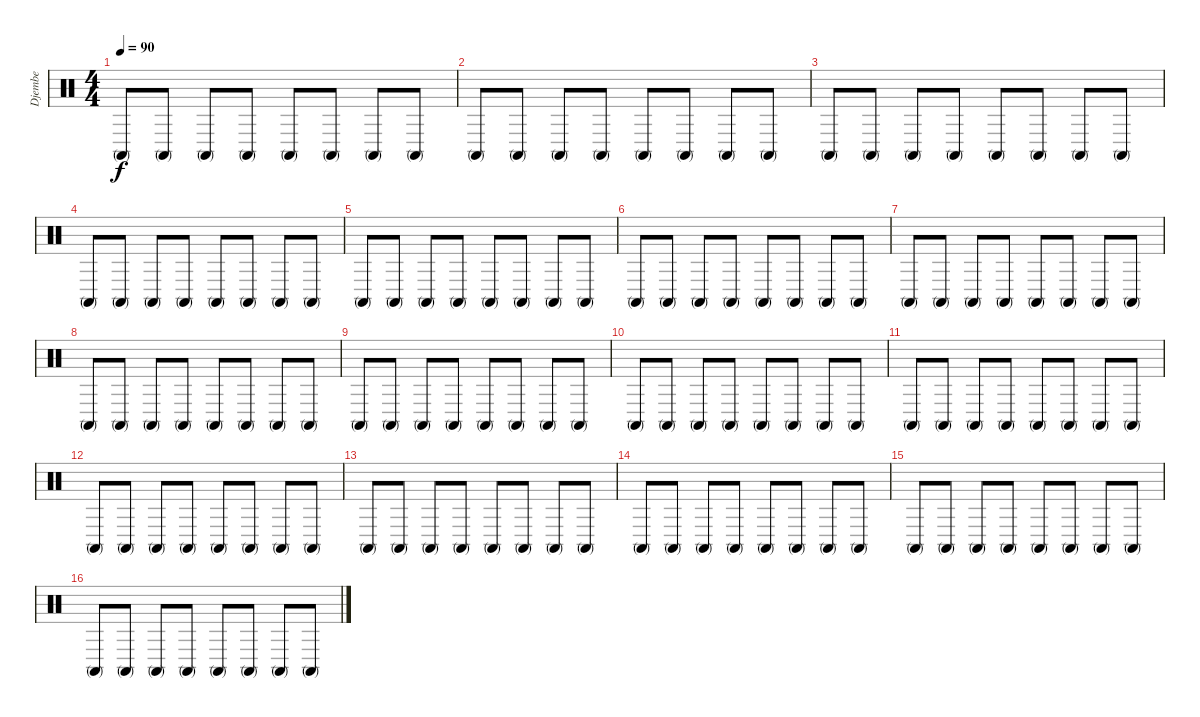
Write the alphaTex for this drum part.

\track ("Djembe" "Djembe") {instrument percussion}
\staff {score}
\articulation defaults
\ts (4 4)
\tempo 90
\clef neutral
\ks c "Conga high (mute)".8{dy f} "Conga high (mute)".8 "Conga high (mute)".8 "Conga high (mute)".8 "Conga high (mute)".8 "Conga high (mute)".8 "Conga high (mute)".8 "Conga high (mute)".8
|
"Conga high (mute)".8 "Conga high (mute)".8 "Conga high (mute)".8 "Conga high (mute)".8 "Conga high (mute)".8 "Conga high (mute)".8 "Conga high (mute)".8 "Conga high (mute)".8 |
"Conga high (mute)".8 "Conga high (mute)".8 "Conga high (mute)".8 "Conga high (mute)".8 "Conga high (mute)".8 "Conga high (mute)".8 "Conga high (mute)".8 "Conga high (mute)".8 |
"Conga high (mute)".8 "Conga high (mute)".8 "Conga high (mute)".8 "Conga high (mute)".8 "Conga high (mute)".8 "Conga high (mute)".8 "Conga high (mute)".8 "Conga high (mute)".8 |
"Conga high (mute)".8 "Conga high (mute)".8 "Conga high (mute)".8 "Conga high (mute)".8 "Conga high (mute)".8 "Conga high (mute)".8 "Conga high (mute)".8 "Conga high (mute)".8 |
"Conga high (mute)".8 "Conga high (mute)".8 "Conga high (mute)".8 "Conga high (mute)".8 "Conga high (mute)".8 "Conga high (mute)".8 "Conga high (mute)".8 "Conga high (mute)".8 |
"Conga high (mute)".8 "Conga high (mute)".8 "Conga high (mute)".8 "Conga high (mute)".8 "Conga high (mute)".8 "Conga high (mute)".8 "Conga high (mute)".8 "Conga high (mute)".8 |
"Conga high (mute)".8 "Conga high (mute)".8 "Conga high (mute)".8 "Conga high (mute)".8 "Conga high (mute)".8 "Conga high (mute)".8 "Conga high (mute)".8 "Conga high (mute)".8 |
"Conga high (mute)".8 "Conga high (mute)".8 "Conga high (mute)".8 "Conga high (mute)".8 "Conga high (mute)".8 "Conga high (mute)".8 "Conga high (mute)".8 "Conga high (mute)".8 |
"Conga high (mute)".8 "Conga high (mute)".8 "Conga high (mute)".8 "Conga high (mute)".8 "Conga high (mute)".8 "Conga high (mute)".8 "Conga high (mute)".8 "Conga high (mute)".8 |
"Conga high (mute)".8 "Conga high (mute)".8 "Conga high (mute)".8 "Conga high (mute)".8 "Conga high (mute)".8 "Conga high (mute)".8 "Conga high (mute)".8 "Conga high (mute)".8 |
"Conga high (mute)".8 "Conga high (mute)".8 "Conga high (mute)".8 "Conga high (mute)".8 "Conga high (mute)".8 "Conga high (mute)".8 "Conga high (mute)".8 "Conga high (mute)".8 |
"Conga high (mute)".8 "Conga high (mute)".8 "Conga high (mute)".8 "Conga high (mute)".8 "Conga high (mute)".8 "Conga high (mute)".8 "Conga high (mute)".8 "Conga high (mute)".8 |
"Conga high (mute)".8 "Conga high (mute)".8 "Conga high (mute)".8 "Conga high (mute)".8 "Conga high (mute)".8 "Conga high (mute)".8 "Conga high (mute)".8 "Conga high (mute)".8 |
"Conga high (mute)".8 "Conga high (mute)".8 "Conga high (mute)".8 "Conga high (mute)".8 "Conga high (mute)".8 "Conga high (mute)".8 "Conga high (mute)".8 "Conga high (mute)".8 |
"Conga high (mute)".8 "Conga high (mute)".8 "Conga high (mute)".8 "Conga high (mute)".8 "Conga high (mute)".8 "Conga high (mute)".8 "Conga high (mute)".8 "Conga high (mute)".8
